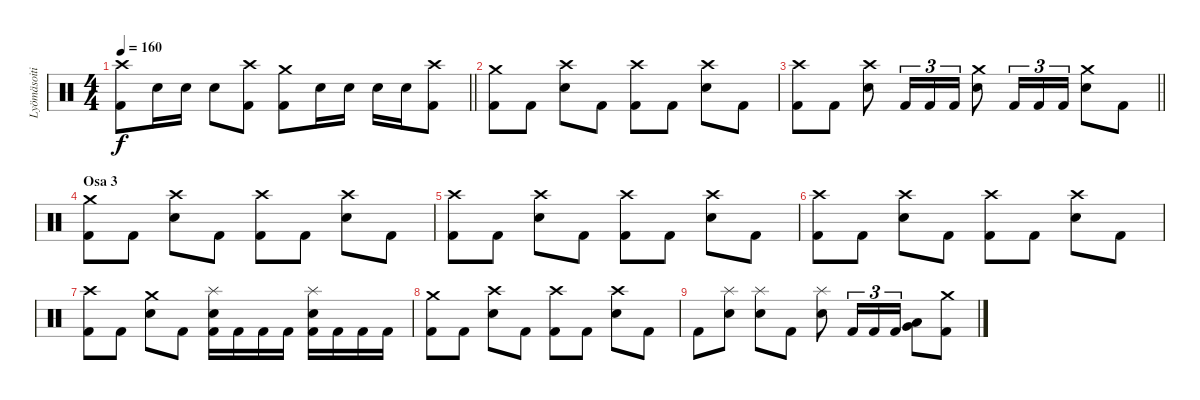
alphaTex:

\track ("Lyömäsoitin" "Lyömäsoiti") {instrument percussion}
\staff {score}
\articulation defaults
\ts (4 4)
\tempo 160
\clef neutral
\barLineRight lightlight
\ks c
("Crash high (hit)" "Kick (hit) 2").8{dy f} "Snare (hit) 2".16 "Snare (hit) 2".16 "Snare (hit) 2".8 ("Crash high (hit)" "Kick (hit) 2").8 ("Crash medium (hit)" "Kick (hit) 2").8 "Snare (hit) 2".16 "Snare (hit) 2".16 "Snare (hit) 2".16 "Snare (hit) 2".16 ("Crash high (hit)" "Kick (hit) 2").8 |
("Crash medium (hit)" "Kick (hit) 2").8 "Kick (hit) 2".8 ("Crash high (hit)" "Snare (hit) 2").8 "Kick (hit) 2".8 ("Crash high (hit)" "Kick (hit) 2").8 "Kick (hit) 2".8 ("Crash high (hit)" "Snare (hit) 2").8 "Kick (hit) 2".8 |
\barLineRight lightlight
("Crash high (hit)" "Kick (hit) 2").8 "Kick (hit) 2".8 ("Crash high (hit)" "Snare (hit) 2").8 "Kick (hit) 2".16{tu (3 2)} "Kick (hit) 2".16{tu (3 2)} "Kick (hit) 2".16{tu (3 2)} ("Crash medium (hit)" "Snare (hit) 2").8 "Kick (hit) 2".16{tu (3 2)} "Kick (hit) 2".16{tu (3 2)} "Kick (hit) 2".16{tu (3 2)} ("Crash medium (hit)" "Snare (hit) 2").8 "Kick (hit) 2".8 |
\section ("" "Osa 3")
("Crash medium (hit)" "Kick (hit) 2").8 "Kick (hit) 2".8 ("Crash high (hit)" "Snare (hit) 2").8 "Kick (hit) 2".8 ("Crash high (hit)" "Kick (hit) 2").8 "Kick (hit) 2".8 ("Crash high (hit)" "Snare (hit) 2").8 "Kick (hit) 2".8 |
("Crash high (hit)" "Kick (hit) 2").8 "Kick (hit) 2".8 ("Crash high (hit)" "Snare (hit) 2").8 "Kick (hit) 2".8 ("Crash high (hit)" "Kick (hit) 2").8 "Kick (hit) 2".8 ("Crash high (hit)" "Snare (hit) 2").8 "Kick (hit) 2".8 |
("Crash high (hit)" "Kick (hit) 2").8 "Kick (hit) 2".8 ("Crash high (hit)" "Snare (hit) 2").8 "Kick (hit) 2".8 ("Crash high (hit)" "Kick (hit) 2").8 "Kick (hit) 2".8 ("Crash high (hit)" "Snare (hit) 2").8 "Kick (hit) 2".8 |
("Crash high (hit)" "Kick (hit) 2").8 "Kick (hit) 2".8 ("Crash medium (hit)" "Snare (hit) 2").8 "Kick (hit) 2".8 ("Splash (hit)" "Snare (hit) 2" "Kick (hit) 2").16 "Kick (hit) 2".16 "Kick (hit) 2".16 "Kick (hit) 2".16 ("Splash (hit)" "Snare (hit) 2" "Kick (hit) 2").16 "Kick (hit) 2".16 "Kick (hit) 2".16 "Kick (hit) 2".16 |
("Crash medium (hit)" "Kick (hit) 2").8 "Kick (hit) 2".8 ("Crash high (hit)" "Snare (hit) 2").8 "Kick (hit) 2".8 ("Crash high (hit)" "Kick (hit) 2").8 "Kick (hit) 2".8 ("Crash high (hit)" "Snare (hit) 2").8 "Kick (hit) 2".8 |
"Kick (hit) 2".8 ("Splash (hit)" "Snare (hit) 2").8 ("Splash (hit)" "Snare (hit) 2").8 "Kick (hit) 2".8 ("Splash (hit)" "Snare (hit) 2").8 "Kick (hit) 2".16{tu (3 2)} "Kick (hit) 2".16{tu (3 2)} "Kick (hit) 2".16{tu (3 2)} ("Low Tom (hit)" "Very Low Tom (hit)").8 ("Crash medium (hit)" "Kick (hit) 2").8
